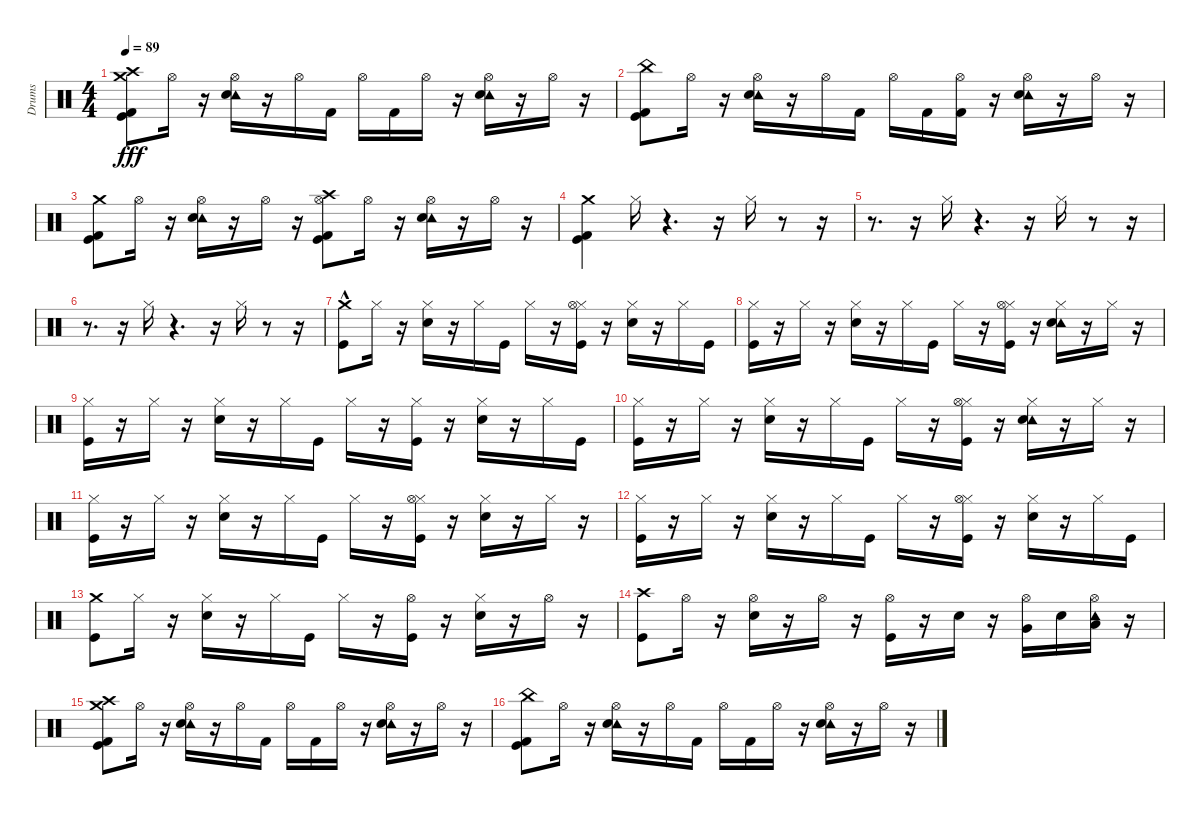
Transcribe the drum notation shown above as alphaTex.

\track ("Drums" "Drums") {instrument percussion}
\staff {score}
\articulation defaults
\ts (4 4)
\tempo 89
\clef neutral
\ks c
("Kick (hit)" "Kick (hit) 2" "Crash high (hit)" "Crash medium (hit)").8{dy fff} "Hi-Hat (open)".16 r.16 ("Hi-Hat (open)" "Tambourine (hit)" "Snare (hit) 2").16 r.16 "Hi-Hat (open)".16 "Kick (hit) 2".16 "Hi-Hat (open)".16 "Kick (hit) 2".16 "Hi-Hat (open)".16 r.16 ("Hi-Hat (open)" "Tambourine (hit)" "Snare (hit) 2").16 r.16 "Hi-Hat (open)".16 r.16 |
("Kick (hit)" "Kick (hit) 2" "China (hit)").8 "Hi-Hat (open)".16 r.16 ("Hi-Hat (open)" "Tambourine (hit)" "Snare (hit) 2").16 r.16 "Hi-Hat (open)".16 "Kick (hit) 2".16 "Hi-Hat (open)".16 "Kick (hit) 2".16 ("Hi-Hat (open)" "Kick (hit) 2").16 r.16 ("Hi-Hat (open)" "Tambourine (hit)" "Snare (hit) 2").16 r.16 "Hi-Hat (open)".16 r.16 |
("Kick (hit) 2" "Kick (hit)" "Crash medium (hit)").8 "Hi-Hat (open)".16 r.16 ("Hi-Hat (open)" "Tambourine (hit)" "Snare (hit) 2").16 r.16 "Hi-Hat (open)".16 r.16 ("Hi-Hat (open)" "Crash high (hit)" "Kick (hit) 2" "Kick (hit)").8 "Hi-Hat (open)".16 r.16 ("Hi-Hat (open)" "Tambourine (hit)" "Snare (hit) 2").16 r.16 "Hi-Hat (open)".16 r.16 |
("Kick (hit)" "Kick (hit) 2" "Crash medium (hit)").4 "Hi-Hat (closed)".16 r.4{d} r.16 "Hi-Hat (closed)".16 r.8 r.16 |
r.8{d} r.16 "Hi-Hat (closed)".16 r.4{d} r.16 "Hi-Hat (closed)".16 r.8 r.16 |
r.8{d} r.16 "Hi-Hat (closed)".16 r.4{d} r.16 "Hi-Hat (closed)".16 r.8 r.16 |
("Crash medium (hit)"{hac} "Kick (hit)").8 "Hi-Hat (closed)".16 r.16 ("Hi-Hat (closed)" "Snare (hit) 2").16 r.16 "Hi-Hat (closed)".16 "Kick (hit)".16 "Hi-Hat (closed)".16 r.16 ("Hi-Hat (closed)" "Kick (hit)" "Hi-Hat (open)").16 r.16 ("Hi-Hat (closed)" "Snare (hit) 2").16 r.16 "Hi-Hat (closed)".16 "Kick (hit)".16 |
("Kick (hit)" "Hi-Hat (closed)").16 r.16 "Hi-Hat (closed)".16 r.16 ("Hi-Hat (closed)" "Snare (hit) 2").16 r.16 "Hi-Hat (closed)".16 "Kick (hit)".16 "Hi-Hat (closed)".16 r.16 ("Kick (hit)" "Hi-Hat (closed)" "Hi-Hat (open)").16 r.16 ("Hi-Hat (closed)" "Tambourine (hit)" "Snare (hit) 2").16 r.16 "Hi-Hat (closed)".16 r.16 |
("Hi-Hat (closed)" "Kick (hit)").16 r.16 "Hi-Hat (closed)".16 r.16 ("Hi-Hat (closed)" "Snare (hit) 2").16 r.16 "Hi-Hat (closed)".16 "Kick (hit)".16 "Hi-Hat (closed)".16 r.16 ("Hi-Hat (closed)" "Kick (hit)").16 r.16 ("Hi-Hat (closed)" "Snare (hit) 2").16 r.16 "Hi-Hat (closed)".16 "Kick (hit)".16 |
("Kick (hit)" "Hi-Hat (closed)").16 r.16 "Hi-Hat (closed)".16 r.16 ("Hi-Hat (closed)" "Snare (hit) 2").16 r.16 "Hi-Hat (closed)".16 "Kick (hit)".16 "Hi-Hat (closed)".16 r.16 ("Kick (hit)" "Hi-Hat (closed)" "Hi-Hat (open)").16 r.16 ("Tambourine (hit)" "Hi-Hat (closed)" "Snare (hit) 2").16 r.16 "Hi-Hat (closed)".16 r.16 |
("Kick (hit)" "Hi-Hat (closed)").16 r.16 "Hi-Hat (closed)".16 r.16 ("Hi-Hat (closed)" "Snare (hit) 2").16 r.16 "Hi-Hat (closed)".16 "Kick (hit)".16 "Hi-Hat (closed)".16 r.16 ("Hi-Hat (closed)" "Kick (hit)" "Hi-Hat (open)").16 r.16 ("Hi-Hat (closed)" "Snare (hit) 2").16 r.16 "Hi-Hat (closed)".16 r.16 |
("Kick (hit)" "Hi-Hat (closed)").16 r.16 "Hi-Hat (closed)".16 r.16 ("Hi-Hat (closed)" "Snare (hit) 2").16 r.16 "Hi-Hat (closed)".16 "Kick (hit)".16 "Hi-Hat (closed)".16 r.16 ("Kick (hit)" "Hi-Hat (closed)" "Hi-Hat (open)").16 r.16 ("Hi-Hat (closed)" "Snare (hit) 2").16 r.16 "Hi-Hat (closed)".16 "Kick (hit)".16 |
("Kick (hit)" "Crash medium (hit)").8 "Hi-Hat (closed)".16 r.16 ("Hi-Hat (closed)" "Snare (hit) 2").16 r.16 "Hi-Hat (closed)".16 "Kick (hit)".16 "Hi-Hat (closed)".16 r.16 ("Hi-Hat (open)" "Kick (hit)").16 r.16 ("Hi-Hat (closed)" "Snare (hit) 2").16 r.16 "Hi-Hat (open)".16 r.16 |
("Crash high (hit)" "Kick (hit)").8 "Hi-Hat (open)".16 r.16 ("Hi-Hat (open)" "Snare (hit) 2").16 r.16 "Hi-Hat (open)".16 r.16 ("Hi-Hat (open)" "Kick (hit)").16 r.16 "Snare (hit) 2".16 r.16 ("Hi-Hat (open)" "Very Low Tom (hit)").16 "Snare (hit) 2".16 ("Hi-Hat (open)" "Tambourine (hit)" "Low Floor Tom (hit)").16 r.16 |
("Crash medium (hit)" "Crash high (hit)" "Kick (hit) 2" "Kick (hit)").8 "Hi-Hat (open)".16 r.16 ("Hi-Hat (open)" "Tambourine (hit)" "Snare (hit) 2").16 r.16 "Hi-Hat (open)".16 "Kick (hit) 2".16 "Hi-Hat (open)".16 "Kick (hit) 2".16 "Hi-Hat (open)".16 r.16 ("Hi-Hat (open)" "Tambourine (hit)" "Snare (hit) 2").16 r.16 "Hi-Hat (open)".16 r.16 |
("Kick (hit)" "Kick (hit) 2" "China (hit)").8 "Hi-Hat (open)".16 r.16 ("Hi-Hat (open)" "Tambourine (hit)" "Snare (hit) 2").16 r.16 "Hi-Hat (open)".16 "Kick (hit) 2".16 "Hi-Hat (open)".16 "Kick (hit) 2".16 "Hi-Hat (open)".16 r.16 ("Hi-Hat (open)" "Tambourine (hit)" "Snare (hit) 2").16 r.16 "Hi-Hat (open)".16 r.16
